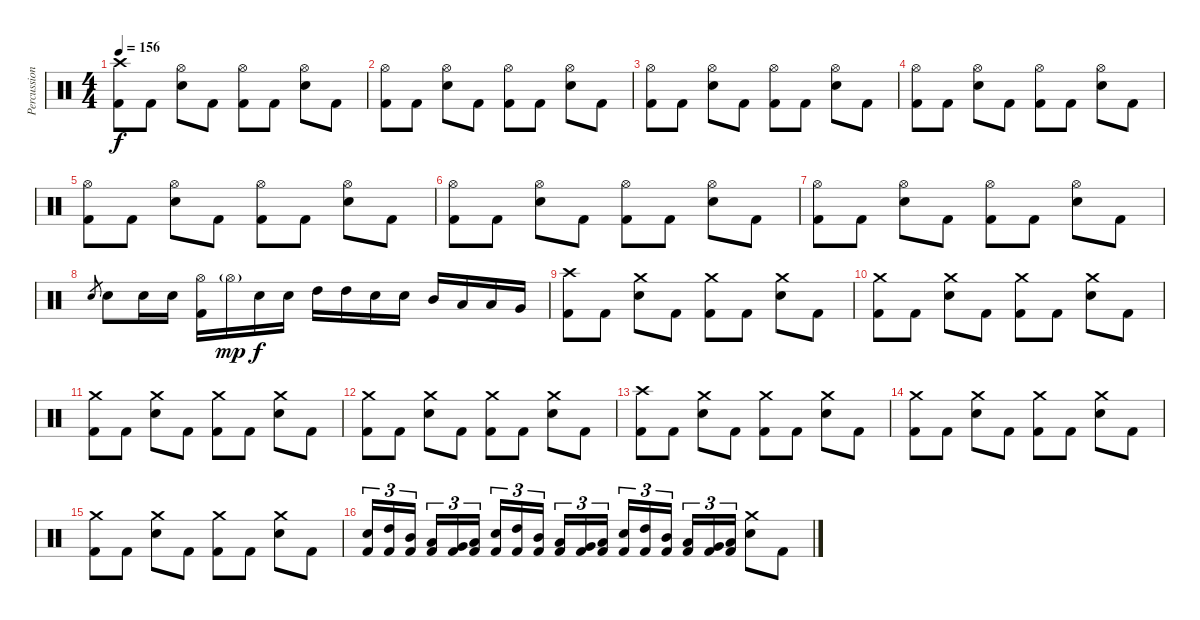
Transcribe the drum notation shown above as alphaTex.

\track ("Percussion" "Percussion") {instrument percussion}
\staff {score}
\articulation defaults
\ts (4 4)
\tempo 156
\clef neutral
\ks c
("Crash high (hit)" "Kick (hit) 2").8{dy f} "Kick (hit) 2".8 ("Hi-Hat (open)" "Electric Snare (hit)").8 "Kick (hit) 2".8 ("Hi-Hat (open)" "Kick (hit) 2").8 "Kick (hit) 2".8 ("Hi-Hat (open)" "Electric Snare (hit)").8 "Kick (hit) 2".8 |
("Hi-Hat (open)" "Kick (hit) 2").8 "Kick (hit) 2".8 ("Hi-Hat (open)" "Electric Snare (hit)").8 "Kick (hit) 2".8 ("Hi-Hat (open)" "Kick (hit) 2").8 "Kick (hit) 2".8 ("Hi-Hat (open)" "Electric Snare (hit)").8 "Kick (hit) 2".8 |
("Hi-Hat (open)" "Kick (hit) 2").8 "Kick (hit) 2".8 ("Hi-Hat (open)" "Electric Snare (hit)").8 "Kick (hit) 2".8 ("Hi-Hat (open)" "Kick (hit) 2").8 "Kick (hit) 2".8 ("Hi-Hat (open)" "Electric Snare (hit)").8 "Kick (hit) 2".8 |
("Hi-Hat (open)" "Kick (hit) 2").8 "Kick (hit) 2".8 ("Hi-Hat (open)" "Electric Snare (hit)").8 "Kick (hit) 2".8 ("Hi-Hat (open)" "Kick (hit) 2").8 "Kick (hit) 2".8 ("Hi-Hat (open)" "Electric Snare (hit)").8 "Kick (hit) 2".8 |
("Hi-Hat (open)" "Kick (hit) 2").8 "Kick (hit) 2".8 ("Hi-Hat (open)" "Electric Snare (hit)").8 "Kick (hit) 2".8 ("Hi-Hat (open)" "Kick (hit) 2").8 "Kick (hit) 2".8 ("Hi-Hat (open)" "Electric Snare (hit)").8 "Kick (hit) 2".8 |
("Hi-Hat (open)" "Kick (hit) 2").8 "Kick (hit) 2".8 ("Hi-Hat (open)" "Electric Snare (hit)").8 "Kick (hit) 2".8 ("Hi-Hat (open)" "Kick (hit) 2").8 "Kick (hit) 2".8 ("Hi-Hat (open)" "Electric Snare (hit)").8 "Kick (hit) 2".8 |
("Hi-Hat (open)" "Kick (hit) 2").8 "Kick (hit) 2".8 ("Hi-Hat (open)" "Electric Snare (hit)").8 "Kick (hit) 2".8 ("Hi-Hat (open)" "Kick (hit) 2").8 "Kick (hit) 2".8 ("Hi-Hat (open)" "Electric Snare (hit)").8 "Kick (hit) 2".8 |
"Electric Snare (hit)".8{gr} "Electric Snare (hit)".8 "Electric Snare (hit)".16 "Electric Snare (hit)".16 ("Hi-Hat (open)" "Kick (hit) 2").16 "Hi-Hat (open)"{g}.16{dy mp} "Electric Snare (hit)".16{dy f} "Electric Snare (hit)".16 "High Tom (hit)".16 "High Tom (hit)".16 "Electric Snare (hit)".16 "Electric Snare (hit)".16 "Mid Tom (hit)".16 "Low Tom (hit)".16 "Low Tom (hit)".16 "Very Low Tom (hit)".16 |
("Crash high (hit)" "Kick (hit) 2").8 "Kick (hit) 2".8 ("Crash medium (hit)" "Electric Snare (hit)").8 "Kick (hit) 2".8 ("Crash medium (hit)" "Kick (hit) 2").8 "Kick (hit) 2".8 ("Crash medium (hit)" "Electric Snare (hit)").8 "Kick (hit) 2".8 |
("Crash medium (hit)" "Kick (hit) 2").8 "Kick (hit) 2".8 ("Crash medium (hit)" "Electric Snare (hit)").8 "Kick (hit) 2".8 ("Crash medium (hit)" "Kick (hit) 2").8 "Kick (hit) 2".8 ("Crash medium (hit)" "Electric Snare (hit)").8 "Kick (hit) 2".8 |
("Crash medium (hit)" "Kick (hit) 2").8 "Kick (hit) 2".8 ("Crash medium (hit)" "Electric Snare (hit)").8 "Kick (hit) 2".8 ("Crash medium (hit)" "Kick (hit) 2").8 "Kick (hit) 2".8 ("Crash medium (hit)" "Electric Snare (hit)").8 "Kick (hit) 2".8 |
("Crash medium (hit)" "Kick (hit) 2").8 "Kick (hit) 2".8 ("Crash medium (hit)" "Electric Snare (hit)").8 "Kick (hit) 2".8 ("Crash medium (hit)" "Kick (hit) 2").8 "Kick (hit) 2".8 ("Crash medium (hit)" "Electric Snare (hit)").8 "Kick (hit) 2".8 |
("Crash high (hit)" "Kick (hit) 2").8 "Kick (hit) 2".8 ("Crash medium (hit)" "Electric Snare (hit)").8 "Kick (hit) 2".8 ("Crash medium (hit)" "Kick (hit) 2").8 "Kick (hit) 2".8 ("Crash medium (hit)" "Electric Snare (hit)").8 "Kick (hit) 2".8 |
("Crash medium (hit)" "Kick (hit) 2").8 "Kick (hit) 2".8 ("Crash medium (hit)" "Electric Snare (hit)").8 "Kick (hit) 2".8 ("Crash medium (hit)" "Kick (hit) 2").8 "Kick (hit) 2".8 ("Crash medium (hit)" "Electric Snare (hit)").8 "Kick (hit) 2".8 |
("Crash medium (hit)" "Kick (hit) 2").8 "Kick (hit) 2".8 ("Crash medium (hit)" "Electric Snare (hit)").8 "Kick (hit) 2".8 ("Crash medium (hit)" "Kick (hit) 2").8 "Kick (hit) 2".8 ("Crash medium (hit)" "Electric Snare (hit)").8 "Kick (hit) 2".8 |
("Electric Snare (hit)" "Kick (hit) 2").16{tu (3 2)} ("High Tom (hit)" "Kick (hit) 2").16{tu (3 2)} ("Mid Tom (hit)" "Kick (hit) 2").16{tu (3 2)} ("Low Tom (hit)" "Kick (hit) 2").16{tu (3 2)} ("Very Low Tom (hit)" "Kick (hit) 2").16{tu (3 2)} ("Low Floor Tom (hit)" "Kick (hit) 2").16{tu (3 2)} ("Electric Snare (hit)" "Kick (hit) 2").16{tu (3 2)} ("High Tom (hit)" "Kick (hit) 2").16{tu (3 2)} ("Mid Tom (hit)" "Kick (hit) 2").16{tu (3 2)} ("Low Tom (hit)" "Kick (hit) 2").16{tu (3 2)} ("Very Low Tom (hit)" "Kick (hit) 2").16{tu (3 2)} ("Low Floor Tom (hit)" "Kick (hit) 2").16{tu (3 2)} ("Electric Snare (hit)" "Kick (hit) 2").16{tu (3 2)} ("High Tom (hit)" "Kick (hit) 2").16{tu (3 2)} ("Mid Tom (hit)" "Kick (hit) 2").16{tu (3 2)} ("Low Tom (hit)" "Kick (hit) 2").16{tu (3 2)} ("Very Low Tom (hit)" "Kick (hit) 2").16{tu (3 2)} ("Low Floor Tom (hit)" "Kick (hit) 2").16{tu (3 2)} ("Crash medium (hit)" "Electric Snare (hit)").8 "Kick (hit) 2".8
